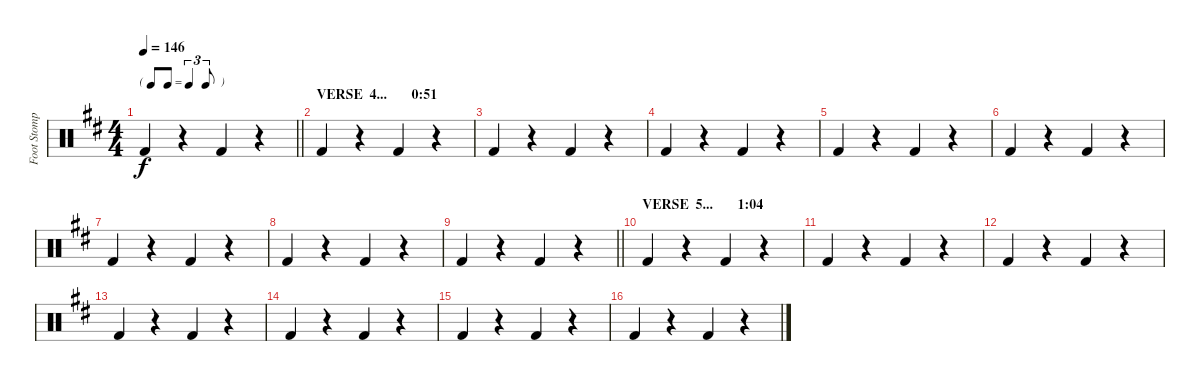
\track ("Foot Stomp" "Foot Stomp") {instrument percussion}
\staff {score}
\articulation defaults
\ts (4 4)
\tf triplet8th
\tempo 146
\clef neutral
\barLineRight lightlight
\ks d "Kick (hit) 2".4{dy f}
r.4 "Kick (hit) 2".4 r.4 |
\section ("" "VERSE  4...       0:51")
"Kick (hit) 2".4 r.4 "Kick (hit) 2".4 r.4 |
"Kick (hit) 2".4 r.4 "Kick (hit) 2".4 r.4 |
"Kick (hit) 2".4 r.4 "Kick (hit) 2".4 r.4 |
"Kick (hit) 2".4 r.4 "Kick (hit) 2".4 r.4 |
"Kick (hit) 2".4 r.4 "Kick (hit) 2".4 r.4 |
"Kick (hit) 2".4 r.4 "Kick (hit) 2".4 r.4 |
"Kick (hit) 2".4 r.4 "Kick (hit) 2".4 r.4 |
\barLineRight lightlight "Kick (hit) 2".4
r.4 "Kick (hit) 2".4 r.4 |
\section ("" "VERSE  5...       1:04")
"Kick (hit) 2".4 r.4 "Kick (hit) 2".4 r.4 |
"Kick (hit) 2".4 r.4 "Kick (hit) 2".4 r.4 |
"Kick (hit) 2".4 r.4 "Kick (hit) 2".4 r.4 |
"Kick (hit) 2".4 r.4 "Kick (hit) 2".4 r.4 |
"Kick (hit) 2".4 r.4 "Kick (hit) 2".4 r.4 |
"Kick (hit) 2".4 r.4 "Kick (hit) 2".4 r.4 |
"Kick (hit) 2".4 r.4 "Kick (hit) 2".4 r.4
